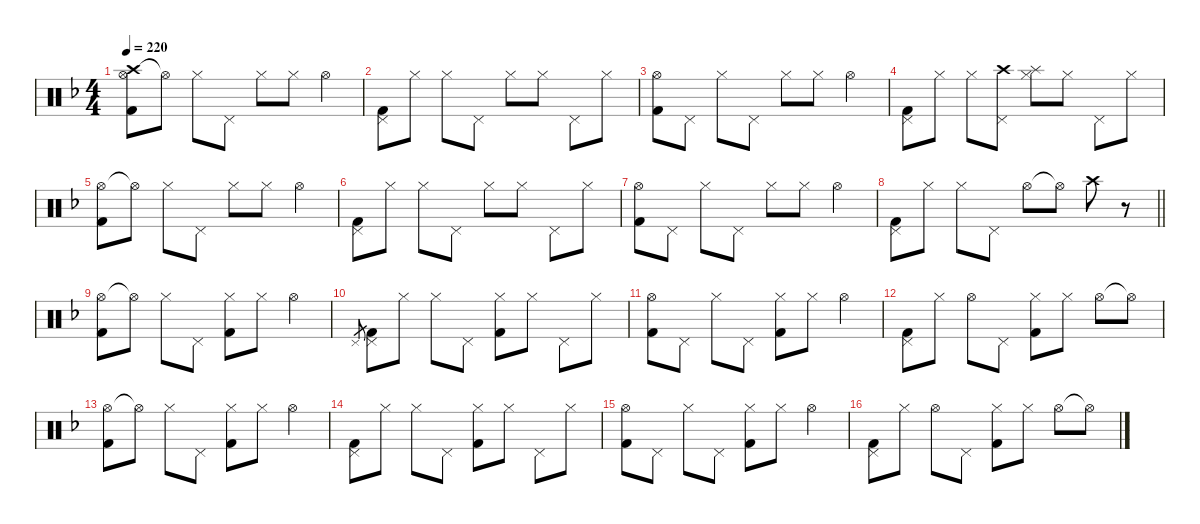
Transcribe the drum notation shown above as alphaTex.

\hideDynamics
\bracketExtendMode nobrackets
\singleTrackTrackNamePolicy hidden
\multiTrackTrackNamePolicy hidden
\firstSystemTrackNameMode fullname
\firstSystemTrackNameOrientation horizontal
\otherSystemsTrackNameOrientation horizontal
\track ("Drumkit" "Drums") {instrument percussion}
\staff {score}
\articulation defaults
\ts (4 4)
\tempo 220
\clef neutral
\ks dminor
("Crash high (hit)"{acc forcenatural} "Hi-Hat (open)"{acc forcenatural} "Kick (hit) 2"{acc forcenatural}).8{dy mp beam Down} "Hi-Hat (open)"{t acc forcenatural}.8{dy f beam Down} "Hi-Hat (closed)"{acc forcenatural}.8{dy mp beam Down} "Pedal Hi-Hat (hit)"{acc forcenatural}.8{beam Down} "Hi-Hat (closed)"{acc forcenatural}.8{beam Down} "Hi-Hat (closed)"{acc forcenatural}.8{beam Down} "Hi-Hat (open)"{acc forcenatural}.4{dy mf beam Down} |
("Pedal Hi-Hat (hit)"{acc forcenatural} "Kick (hit) 2"{acc forcenatural}).8{beam Down} "Hi-Hat (closed)"{acc forcenatural}.8{dy mp beam Down} "Hi-Hat (closed)"{acc forcenatural}.8{beam Down} "Pedal Hi-Hat (hit)"{acc forcenatural}.8{dy mf beam Down} "Hi-Hat (closed)"{acc forcenatural}.8{dy mp beam Down} "Hi-Hat (closed)"{acc forcenatural}.8{beam Down} "Pedal Hi-Hat (hit)"{acc forcenatural}.8{dy mf beam Down} "Hi-Hat (closed)"{acc forcenatural}.8{dy mp beam Down} |
("Hi-Hat (open)"{acc forcenatural} "Kick (hit) 2"{acc forcenatural}).8{dy mf beam Down} "Pedal Hi-Hat (hit)"{acc forcenatural}.8{beam Down} "Hi-Hat (closed)"{acc forcenatural}.8{dy mp beam Down} "Pedal Hi-Hat (hit)"{acc forcenatural}.8{beam Down} "Hi-Hat (closed)"{acc forcenatural}.8{beam Down} "Hi-Hat (closed)"{acc forcenatural}.8{beam Down} "Hi-Hat (open)"{acc forcenatural}.4{dy mf beam Down} |
("Pedal Hi-Hat (hit)"{acc forcenatural} "Kick (hit) 2"{acc forcenatural}).8{beam Down} "Hi-Hat (closed)"{acc forcenatural}.8{dy mp beam Down} "Hi-Hat (closed)"{acc forcenatural}.8{beam Down} ("Crash high (hit)"{acc forcenatural} "Pedal Hi-Hat (hit)"{acc forcenatural}).8{beam Down} ("Splash (hit)"{acc forcenatural} "Hi-Hat (closed)"{acc forcenatural}).8{beam Down} "Hi-Hat (closed)"{acc forcenatural}.8{beam Down} "Pedal Hi-Hat (hit)"{acc forcenatural}.8{dy mf beam Down} "Hi-Hat (closed)"{acc forcenatural}.8{dy mp beam Down} |
("Hi-Hat (open)"{acc forcenatural} "Kick (hit) 2"{acc forcenatural}).8{dy mf beam Down} "Hi-Hat (open)"{t acc forcenatural}.8{dy f beam Down} "Hi-Hat (closed)"{acc forcenatural}.8{dy mp beam Down} "Pedal Hi-Hat (hit)"{acc forcenatural}.8{beam Down} "Hi-Hat (closed)"{acc forcenatural}.8{beam Down} "Hi-Hat (closed)"{acc forcenatural}.8{beam Down} "Hi-Hat (open)"{acc forcenatural}.4{dy mf beam Down} |
("Pedal Hi-Hat (hit)"{acc forcenatural} "Kick (hit) 2"{acc forcenatural}).8{beam Down} "Hi-Hat (closed)"{acc forcenatural}.8{dy mp beam Down} "Hi-Hat (closed)"{acc forcenatural}.8{beam Down} "Pedal Hi-Hat (hit)"{acc forcenatural}.8{dy mf beam Down} "Hi-Hat (closed)"{acc forcenatural}.8{dy mp beam Down} "Hi-Hat (closed)"{acc forcenatural}.8{beam Down} "Pedal Hi-Hat (hit)"{acc forcenatural}.8{dy mf beam Down} "Hi-Hat (closed)"{acc forcenatural}.8{dy mp beam Down} |
("Hi-Hat (open)"{acc forcenatural} "Kick (hit) 2"{acc forcenatural}).8{dy mf beam Down} "Pedal Hi-Hat (hit)"{acc forcenatural}.8{beam Down} "Hi-Hat (closed)"{acc forcenatural}.8{dy mp beam Down} "Pedal Hi-Hat (hit)"{acc forcenatural}.8{beam Down} "Hi-Hat (closed)"{acc forcenatural}.8{beam Down} "Hi-Hat (closed)"{acc forcenatural}.8{beam Down} "Hi-Hat (open)"{acc forcenatural}.4{dy mf beam Down} |
\barLineRight lightlight
("Pedal Hi-Hat (hit)"{acc forcenatural} "Kick (hit) 2"{acc forcenatural}).8{beam Down} "Hi-Hat (closed)"{acc forcenatural}.8{dy mp beam Down} "Hi-Hat (closed)"{acc forcenatural}.8{beam Down} "Pedal Hi-Hat (hit)"{acc forcenatural}.8{dy mf beam Down} "Hi-Hat (open)"{acc forcenatural}.8{beam Down} "Hi-Hat (open)"{t acc forcenatural}.8{dy f beam Down} "Crash high (hit)"{acc forcenatural}.8{dy mf beam Down} r.8{beam Down} |
("Hi-Hat (open)"{acc forcenatural} "Kick (hit) 2"{acc forcenatural}).8{beam Down} "Hi-Hat (open)"{t acc forcenatural}.8{dy f beam Down} "Hi-Hat (closed)"{acc forcenatural}.8{dy mp beam Down} "Pedal Hi-Hat (hit)"{acc forcenatural}.8{beam Down} ("Hi-Hat (closed)"{acc forcenatural} "Kick (hit) 2"{acc forcenatural}).8{beam Down} "Hi-Hat (closed)"{acc forcenatural}.8{beam Down} "Hi-Hat (open)"{acc forcenatural}.4{dy mf beam Down} |
"Pedal Hi-Hat (hit)"{acc forcenatural}.8{gr dy p beam Up} ("Pedal Hi-Hat (hit)"{acc forcenatural} "Kick (hit) 2"{acc forcenatural}).8{dy mf beam Down} "Hi-Hat (closed)"{acc forcenatural}.8{dy mp beam Down} "Hi-Hat (closed)"{acc forcenatural}.8{beam Down} "Pedal Hi-Hat (hit)"{acc forcenatural}.8{dy mf beam Down} ("Hi-Hat (closed)"{acc forcenatural} "Kick (hit) 2"{acc forcenatural}).8{dy mp beam Down} "Hi-Hat (closed)"{acc forcenatural}.8{beam Down} "Pedal Hi-Hat (hit)"{acc forcenatural}.8{dy mf beam Down} "Hi-Hat (closed)"{acc forcenatural}.8{dy mp beam Down} |
("Hi-Hat (open)"{acc forcenatural} "Kick (hit) 2"{acc forcenatural}).8{dy mf beam Down} "Pedal Hi-Hat (hit)"{acc forcenatural}.8{beam Down} "Hi-Hat (closed)"{acc forcenatural}.8{dy mp beam Down} "Pedal Hi-Hat (hit)"{acc forcenatural}.8{beam Down} ("Hi-Hat (closed)"{acc forcenatural} "Kick (hit) 2"{acc forcenatural}).8{beam Down} "Hi-Hat (closed)"{acc forcenatural}.8{beam Down} "Hi-Hat (open)"{acc forcenatural}.4{dy mf beam Down} |
("Pedal Hi-Hat (hit)"{acc forcenatural} "Kick (hit) 2"{acc forcenatural}).8{beam Down} "Hi-Hat (closed)"{acc forcenatural}.8{dy mp beam Down} "Hi-Hat (open)"{acc forcenatural}.8{dy mf beam Down} "Pedal Hi-Hat (hit)"{acc forcenatural}.8{dy f beam Down} ("Hi-Hat (closed)"{acc forcenatural} "Kick (hit) 2"{acc forcenatural}).8{dy mp beam Down} "Hi-Hat (closed)"{acc forcenatural}.8{beam Down} "Hi-Hat (open)"{acc forcenatural}.8{dy mf beam Down} "Hi-Hat (open)"{t acc forcenatural}.8{dy f beam Down} |
("Hi-Hat (open)"{acc forcenatural} "Kick (hit) 2"{acc forcenatural}).8{dy mf beam Down} "Hi-Hat (open)"{t acc forcenatural}.8{dy f beam Down} "Hi-Hat (closed)"{acc forcenatural}.8{dy mp beam Down} "Pedal Hi-Hat (hit)"{acc forcenatural}.8{beam Down} ("Hi-Hat (closed)"{acc forcenatural} "Kick (hit) 2"{acc forcenatural}).8{beam Down} "Hi-Hat (closed)"{acc forcenatural}.8{beam Down} "Hi-Hat (open)"{acc forcenatural}.4{dy mf beam Down} |
("Pedal Hi-Hat (hit)"{acc forcenatural} "Kick (hit) 2"{acc forcenatural}).8{beam Down} "Hi-Hat (closed)"{acc forcenatural}.8{dy mp beam Down} "Hi-Hat (closed)"{acc forcenatural}.8{beam Down} "Pedal Hi-Hat (hit)"{acc forcenatural}.8{dy mf beam Down} ("Hi-Hat (closed)"{acc forcenatural} "Kick (hit) 2"{acc forcenatural}).8{dy mp beam Down} "Hi-Hat (closed)"{acc forcenatural}.8{beam Down} "Pedal Hi-Hat (hit)"{acc forcenatural}.8{dy mf beam Down} "Hi-Hat (closed)"{acc forcenatural}.8{dy mp beam Down} |
("Hi-Hat (open)"{acc forcenatural} "Kick (hit) 2"{acc forcenatural}).8{dy mf beam Down} "Pedal Hi-Hat (hit)"{acc forcenatural}.8{beam Down} "Hi-Hat (closed)"{acc forcenatural}.8{dy mp beam Down} "Pedal Hi-Hat (hit)"{acc forcenatural}.8{beam Down} ("Hi-Hat (closed)"{acc forcenatural} "Kick (hit) 2"{acc forcenatural}).8{beam Down} "Hi-Hat (closed)"{acc forcenatural}.8{beam Down} "Hi-Hat (open)"{acc forcenatural}.4{dy mf beam Down} |
("Pedal Hi-Hat (hit)"{acc forcenatural} "Kick (hit) 2"{acc forcenatural}).8{beam Down} "Hi-Hat (closed)"{acc forcenatural}.8{dy mp beam Down} "Hi-Hat (open)"{acc forcenatural}.8{dy mf beam Down} "Pedal Hi-Hat (hit)"{acc forcenatural}.8{dy f beam Down} ("Hi-Hat (closed)"{acc forcenatural} "Kick (hit) 2"{acc forcenatural}).8{dy mp beam Down} "Hi-Hat (closed)"{acc forcenatural}.8{beam Down} "Hi-Hat (open)"{acc forcenatural}.8{dy mf beam Down} "Hi-Hat (open)"{t acc forcenatural}.8{dy f beam Down}
